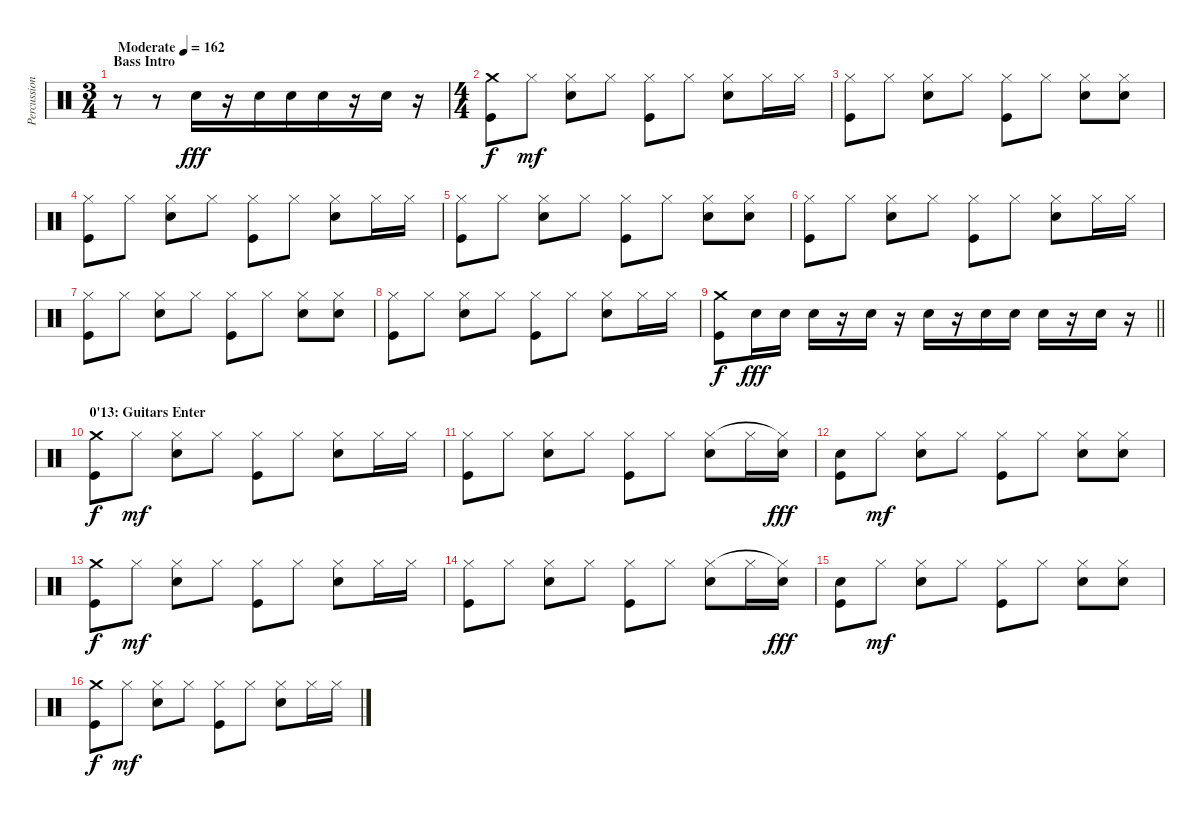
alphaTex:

\track ("Percussion" "Percussion") {instrument percussion}
\staff {score}
\articulation defaults
\ts (3 4)
\section ("" "Bass Intro")
\tempo (162 "Moderate")
\clef neutral
\ks c
r.8{dy fff} r.8 "Electric Snare (hit)".16 r.16{beam merge} "Electric Snare (hit)".16 "Electric Snare (hit)".16{beam merge} "Electric Snare (hit)".16 r.16{beam merge} "Electric Snare (hit)".16 r.16 |
\ts (4 4)
("Kick (hit)" "Crash medium (hit)").8{dy f} "Hi-Hat (closed)".8{dy mf} ("Electric Snare (hit)" "Hi-Hat (closed)").8 "Hi-Hat (closed)".8 ("Kick (hit)" "Hi-Hat (closed)").8 "Hi-Hat (closed)".8 ("Electric Snare (hit)" "Hi-Hat (closed)").8 "Hi-Hat (closed)".16 "Hi-Hat (closed)".16 |
("Kick (hit)" "Hi-Hat (closed)").8 "Hi-Hat (closed)".8 ("Electric Snare (hit)" "Hi-Hat (closed)").8 "Hi-Hat (closed)".8 ("Kick (hit)" "Hi-Hat (closed)").8 "Hi-Hat (closed)".8 ("Electric Snare (hit)" "Hi-Hat (closed)").8 ("Electric Snare (hit)" "Hi-Hat (closed)").8 |
("Kick (hit)" "Hi-Hat (closed)").8 "Hi-Hat (closed)".8 ("Electric Snare (hit)" "Hi-Hat (closed)").8 "Hi-Hat (closed)".8 ("Kick (hit)" "Hi-Hat (closed)").8 "Hi-Hat (closed)".8 ("Electric Snare (hit)" "Hi-Hat (closed)").8 "Hi-Hat (closed)".16 "Hi-Hat (closed)".16 |
("Kick (hit)" "Hi-Hat (closed)").8 "Hi-Hat (closed)".8 ("Electric Snare (hit)" "Hi-Hat (closed)").8 "Hi-Hat (closed)".8 ("Kick (hit)" "Hi-Hat (closed)").8 "Hi-Hat (closed)".8 ("Electric Snare (hit)" "Hi-Hat (closed)").8 ("Electric Snare (hit)" "Hi-Hat (closed)").8 |
("Kick (hit)" "Hi-Hat (closed)").8 "Hi-Hat (closed)".8 ("Electric Snare (hit)" "Hi-Hat (closed)").8 "Hi-Hat (closed)".8 ("Kick (hit)" "Hi-Hat (closed)").8 "Hi-Hat (closed)".8 ("Electric Snare (hit)" "Hi-Hat (closed)").8 "Hi-Hat (closed)".16 "Hi-Hat (closed)".16 |
("Kick (hit)" "Hi-Hat (closed)").8 "Hi-Hat (closed)".8 ("Electric Snare (hit)" "Hi-Hat (closed)").8 "Hi-Hat (closed)".8 ("Kick (hit)" "Hi-Hat (closed)").8 "Hi-Hat (closed)".8 ("Electric Snare (hit)" "Hi-Hat (closed)").8 ("Electric Snare (hit)" "Hi-Hat (closed)").8 |
("Kick (hit)" "Hi-Hat (closed)").8 "Hi-Hat (closed)".8 ("Electric Snare (hit)" "Hi-Hat (closed)").8 "Hi-Hat (closed)".8 ("Kick (hit)" "Hi-Hat (closed)").8 "Hi-Hat (closed)".8 ("Electric Snare (hit)" "Hi-Hat (closed)").8 "Hi-Hat (closed)".16 "Hi-Hat (closed)".16 |
\barLineRight lightlight
("Kick (hit)" "Crash medium (hit)").8{dy f beam merge} "Electric Snare (hit)".16{dy fff} "Electric Snare (hit)".16 "Electric Snare (hit)".16 r.16 "Electric Snare (hit)".16 r.16 "Electric Snare (hit)".16 r.16{beam merge} "Electric Snare (hit)".16 "Electric Snare (hit)".16 "Electric Snare (hit)".16 r.16 "Electric Snare (hit)".16 r.16 |
\section ("" "0'13: Guitars Enter")
("Kick (hit)" "Crash medium (hit)").8{dy f} "Hi-Hat (closed)".8{dy mf} ("Electric Snare (hit)" "Hi-Hat (closed)").8 "Hi-Hat (closed)".8 ("Kick (hit)" "Hi-Hat (closed)").8 "Hi-Hat (closed)".8 ("Electric Snare (hit)" "Hi-Hat (closed)").8 "Hi-Hat (closed)".16 "Hi-Hat (closed)".16 |
("Kick (hit)" "Hi-Hat (closed)").8 "Hi-Hat (closed)".8 ("Electric Snare (hit)" "Hi-Hat (closed)").8 "Hi-Hat (closed)".8 ("Kick (hit)" "Hi-Hat (closed)").8 "Hi-Hat (closed)".8 ("Electric Snare (hit)" "Hi-Hat (closed)").8 "Hi-Hat (closed)".16 ("Electric Snare (hit)" "Hi-Hat (closed)"{t}).16{dy fff} |
("Electric Snare (hit)" "Kick (hit)").8 "Hi-Hat (closed)".8{dy mf} ("Electric Snare (hit)" "Hi-Hat (closed)").8 "Hi-Hat (closed)".8 ("Kick (hit)" "Hi-Hat (closed)").8 "Hi-Hat (closed)".8 ("Electric Snare (hit)" "Hi-Hat (closed)").8 ("Electric Snare (hit)" "Hi-Hat (closed)").8 |
("Kick (hit)" "Crash medium (hit)").8{dy f} "Hi-Hat (closed)".8{dy mf} ("Electric Snare (hit)" "Hi-Hat (closed)").8 "Hi-Hat (closed)".8 ("Kick (hit)" "Hi-Hat (closed)").8 "Hi-Hat (closed)".8 ("Electric Snare (hit)" "Hi-Hat (closed)").8 "Hi-Hat (closed)".16 "Hi-Hat (closed)".16 |
("Kick (hit)" "Hi-Hat (closed)").8 "Hi-Hat (closed)".8 ("Electric Snare (hit)" "Hi-Hat (closed)").8 "Hi-Hat (closed)".8 ("Kick (hit)" "Hi-Hat (closed)").8 "Hi-Hat (closed)".8 ("Electric Snare (hit)" "Hi-Hat (closed)").8 "Hi-Hat (closed)".16 ("Electric Snare (hit)" "Hi-Hat (closed)"{t}).16{dy fff} |
("Electric Snare (hit)" "Kick (hit)").8 "Hi-Hat (closed)".8{dy mf} ("Electric Snare (hit)" "Hi-Hat (closed)").8 "Hi-Hat (closed)".8 ("Kick (hit)" "Hi-Hat (closed)").8 "Hi-Hat (closed)".8 ("Electric Snare (hit)" "Hi-Hat (closed)").8 ("Electric Snare (hit)" "Hi-Hat (closed)").8 |
("Kick (hit)" "Crash medium (hit)").8{dy f} "Hi-Hat (closed)".8{dy mf} ("Electric Snare (hit)" "Hi-Hat (closed)").8 "Hi-Hat (closed)".8 ("Kick (hit)" "Hi-Hat (closed)").8 "Hi-Hat (closed)".8 ("Electric Snare (hit)" "Hi-Hat (closed)").8 "Hi-Hat (closed)".16 "Hi-Hat (closed)".16
